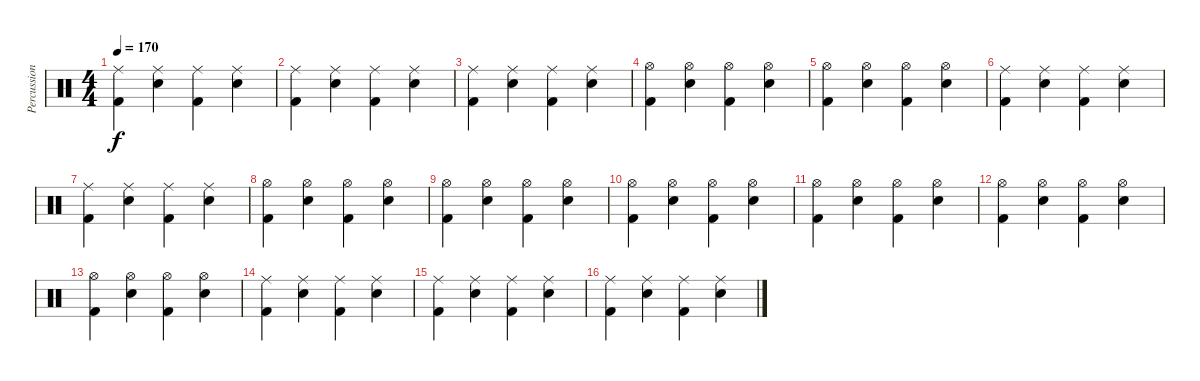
\track ("Percussion" "Percussion") {instrument percussion}
\staff {score}
\articulation defaults
\ts (4 4)
\tempo 170
\clef neutral
\ks c
("Ride (middle)" "Kick (hit) 2").4{dy f} ("Ride (middle)" "Electric Snare (hit)").4 ("Ride (middle)" "Kick (hit) 2").4 ("Ride (middle)" "Electric Snare (hit)").4 |
("Ride (middle)" "Kick (hit) 2").4 ("Ride (middle)" "Electric Snare (hit)").4 ("Ride (middle)" "Kick (hit) 2").4 ("Ride (middle)" "Electric Snare (hit)").4 |
("Ride (middle)" "Kick (hit) 2").4 ("Ride (middle)" "Electric Snare (hit)").4 ("Ride (middle)" "Kick (hit) 2").4 ("Ride (middle)" "Electric Snare (hit)").4 |
("Hi-Hat (open)" "Kick (hit) 2").4 ("Hi-Hat (open)" "Electric Snare (hit)").4 ("Hi-Hat (open)" "Kick (hit) 2").4 ("Hi-Hat (open)" "Electric Snare (hit)").4 |
("Hi-Hat (open)" "Kick (hit) 2").4 ("Hi-Hat (open)" "Electric Snare (hit)").4 ("Hi-Hat (open)" "Kick (hit) 2").4 ("Hi-Hat (open)" "Electric Snare (hit)").4 |
("Ride (middle)" "Kick (hit) 2").4 ("Ride (middle)" "Electric Snare (hit)").4 ("Ride (middle)" "Kick (hit) 2").4 ("Ride (middle)" "Electric Snare (hit)").4 |
("Ride (middle)" "Kick (hit) 2").4 ("Ride (middle)" "Electric Snare (hit)").4 ("Ride (middle)" "Kick (hit) 2").4 ("Ride (middle)" "Electric Snare (hit)").4 |
("Hi-Hat (open)" "Kick (hit) 2").4 ("Hi-Hat (open)" "Electric Snare (hit)").4 ("Hi-Hat (open)" "Kick (hit) 2").4 ("Hi-Hat (open)" "Electric Snare (hit)").4 |
("Hi-Hat (open)" "Kick (hit) 2").4 ("Hi-Hat (open)" "Electric Snare (hit)").4 ("Hi-Hat (open)" "Kick (hit) 2").4 ("Hi-Hat (open)" "Electric Snare (hit)").4 |
("Hi-Hat (open)" "Kick (hit) 2").4 ("Hi-Hat (open)" "Electric Snare (hit)").4 ("Hi-Hat (open)" "Kick (hit) 2").4 ("Hi-Hat (open)" "Electric Snare (hit)").4 |
("Hi-Hat (open)" "Kick (hit) 2").4 ("Hi-Hat (open)" "Electric Snare (hit)").4 ("Hi-Hat (open)" "Kick (hit) 2").4 ("Hi-Hat (open)" "Electric Snare (hit)").4 |
("Hi-Hat (open)" "Kick (hit) 2").4 ("Hi-Hat (open)" "Electric Snare (hit)").4 ("Hi-Hat (open)" "Kick (hit) 2").4 ("Hi-Hat (open)" "Electric Snare (hit)").4 |
("Hi-Hat (open)" "Kick (hit) 2").4 ("Hi-Hat (open)" "Electric Snare (hit)").4 ("Hi-Hat (open)" "Kick (hit) 2").4 ("Hi-Hat (open)" "Electric Snare (hit)").4 |
("Ride (middle)" "Kick (hit) 2").4 ("Ride (middle)" "Electric Snare (hit)").4 ("Ride (middle)" "Kick (hit) 2").4 ("Ride (middle)" "Electric Snare (hit)").4 |
("Ride (middle)" "Kick (hit) 2").4 ("Ride (middle)" "Electric Snare (hit)").4 ("Ride (middle)" "Kick (hit) 2").4 ("Ride (middle)" "Electric Snare (hit)").4 |
("Ride (middle)" "Kick (hit) 2").4 ("Ride (middle)" "Electric Snare (hit)").4 ("Ride (middle)" "Kick (hit) 2").4 ("Ride (middle)" "Electric Snare (hit)").4
